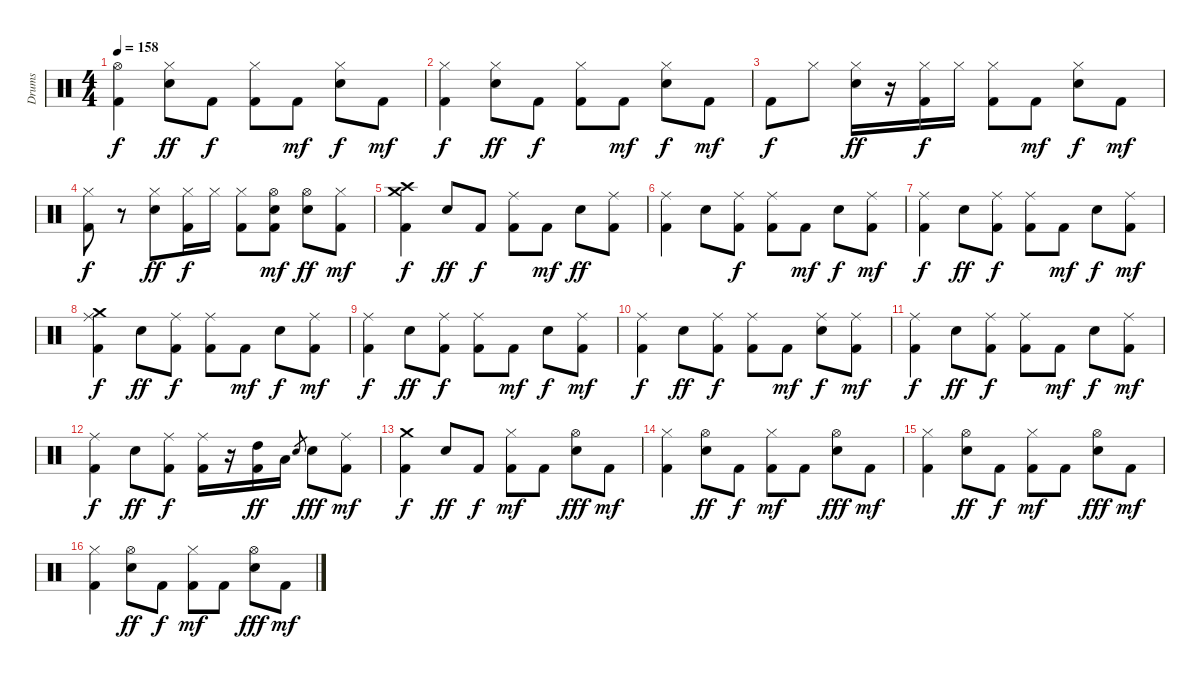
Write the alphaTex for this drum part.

\track ("Drums" "Drums") {instrument percussion}
\staff {score}
\articulation defaults
\ts (4 4)
\tempo 158
\clef neutral
\ks c
("Hi-Hat (open)" "Kick (hit) 2").4{dy f} ("Hi-Hat (closed)" "Snare (hit) 2").8{dy ff} "Kick (hit) 2".8{dy f} ("Hi-Hat (closed)" "Kick (hit) 2").8 "Kick (hit) 2".8{dy mf} ("Hi-Hat (closed)" "Snare (hit) 2").8{dy f} "Kick (hit) 2".8{dy mf} |
("Hi-Hat (closed)" "Kick (hit) 2").4{dy f} ("Hi-Hat (closed)" "Snare (hit) 2").8{dy ff} "Kick (hit) 2".8{dy f} ("Hi-Hat (closed)" "Kick (hit) 2").8 "Kick (hit) 2".8{dy mf} ("Hi-Hat (closed)" "Snare (hit) 2").8{dy f} "Kick (hit) 2".8{dy mf} |
"Kick (hit) 2".8{dy f} "Hi-Hat (closed)".8 ("Hi-Hat (closed)" "Snare (hit) 2").16{dy ff} r.16 ("Hi-Hat (closed)" "Kick (hit) 2").16{dy f} "Hi-Hat (closed)".16 ("Hi-Hat (closed)" "Kick (hit) 2").8 "Kick (hit) 2".8{dy mf} ("Hi-Hat (closed)" "Snare (hit) 2").8{dy f} "Kick (hit) 2".8{dy mf} |
("Hi-Hat (closed)" "Kick (hit) 2").8{dy f} r.8 ("Hi-Hat (closed)" "Snare (hit) 2").8{dy ff} ("Hi-Hat (closed)" "Kick (hit) 2").16{dy f} "Hi-Hat (closed)".16 ("Hi-Hat (closed)" "Kick (hit) 2").8 ("Hi-Hat (open)" "Snare (hit) 2" "Kick (hit) 2").8{dy mf} ("Hi-Hat (open)" "Snare (hit) 2").8{dy ff} ("Hi-Hat (closed)" "Kick (hit) 2").8{dy mf} |
("Crash high (hit)" "Crash medium (hit)" "Kick (hit) 2").4{dy f} "Snare (hit) 2".8{dy ff} "Kick (hit) 2".8{dy f} ("Ride (middle)" "Kick (hit) 2").8 "Kick (hit) 2".8{dy mf} "Snare (hit) 2".8{dy ff} ("Ride (middle)" "Kick (hit) 2").8 |
("Ride (middle)" "Kick (hit) 2").4 "Snare (hit) 2".8 ("Ride (middle)" "Kick (hit) 2").8{dy f} ("Ride (middle)" "Kick (hit) 2").8 "Kick (hit) 2".8{dy mf} "Snare (hit) 2".8{dy f} ("Ride (middle)" "Kick (hit) 2").8{dy mf} |
("Ride (middle)" "Kick (hit) 2").4{dy f} "Snare (hit) 2".8{dy ff} ("Ride (middle)" "Kick (hit) 2").8{dy f} ("Ride (middle)" "Kick (hit) 2").8 "Kick (hit) 2".8{dy mf} "Snare (hit) 2".8{dy f} ("Ride (middle)" "Kick (hit) 2").8{dy mf} |
("Ride (middle)" "Crash medium (hit)" "Kick (hit) 2").4{dy f} "Snare (hit) 2".8{dy ff} ("Ride (middle)" "Kick (hit) 2").8{dy f} ("Ride (middle)" "Kick (hit) 2").8 "Kick (hit) 2".8{dy mf} "Snare (hit) 2".8{dy f} ("Ride (middle)" "Kick (hit) 2").8{dy mf} |
("Ride (middle)" "Kick (hit) 2").4{dy f} "Snare (hit) 2".8{dy ff} ("Ride (middle)" "Kick (hit) 2").8{dy f} ("Ride (middle)" "Kick (hit) 2").8 "Kick (hit) 2".8{dy mf} "Snare (hit) 2".8{dy f} ("Ride (middle)" "Kick (hit) 2").8{dy mf} |
("Ride (middle)" "Kick (hit) 2").4{dy f} "Snare (hit) 2".8{dy ff} ("Ride (middle)" "Kick (hit) 2").8{dy f} ("Ride (middle)" "Kick (hit) 2").8 "Kick (hit) 2".8{dy mf} ("Ride (middle)" "Snare (hit) 2").8{dy f} ("Ride (middle)" "Kick (hit) 2").8{dy mf} |
("Ride (middle)" "Kick (hit) 2").4{dy f} "Snare (hit) 2".8{dy ff} ("Ride (middle)" "Kick (hit) 2").8{dy f} ("Ride (middle)" "Kick (hit) 2").8 "Kick (hit) 2".8{dy mf} "Snare (hit) 2".8{dy f} ("Ride (middle)" "Kick (hit) 2").8{dy mf} |
("Ride (middle)" "Kick (hit) 2").4{dy f} "Snare (hit) 2".8{dy ff} ("Ride (middle)" "Kick (hit) 2").8{dy f} ("Ride (middle)" "Kick (hit) 2").16 r.16 ("High Tom (hit)" "Kick (hit) 2").16{dy ff} "Low Tom (hit)".16 "Snare (hit) 2".8{gr} "Snare (hit) 2".8{dy fff} ("Ride (middle)" "Kick (hit) 2").8{dy mf} |
("Crash medium (hit)" "Kick (hit) 2").4{dy f} "Snare (hit) 2".8{dy ff} "Kick (hit) 2".8{dy f} ("Hi-Hat (closed)" "Kick (hit) 2").8{dy mf} "Kick (hit) 2".8 ("Hi-Hat (open)" "Snare (hit) 2").8{dy fff} "Kick (hit) 2".8{dy mf} |
("Hi-Hat (closed)" "Kick (hit) 2").4 ("Hi-Hat (open)" "Snare (hit) 2").8{dy ff} "Kick (hit) 2".8{dy f} ("Hi-Hat (closed)" "Kick (hit) 2").8{dy mf} "Kick (hit) 2".8 ("Hi-Hat (open)" "Snare (hit) 2").8{dy fff} "Kick (hit) 2".8{dy mf} |
("Hi-Hat (closed)" "Kick (hit) 2").4 ("Hi-Hat (open)" "Snare (hit) 2").8{dy ff} "Kick (hit) 2".8{dy f} ("Hi-Hat (closed)" "Kick (hit) 2").8{dy mf} "Kick (hit) 2".8 ("Hi-Hat (open)" "Snare (hit) 2").8{dy fff} "Kick (hit) 2".8{dy mf} |
("Hi-Hat (closed)" "Kick (hit) 2").4 ("Hi-Hat (open)" "Snare (hit) 2").8{dy ff} "Kick (hit) 2".8{dy f} ("Hi-Hat (closed)" "Kick (hit) 2").8{dy mf} "Kick (hit) 2".8 ("Hi-Hat (open)" "Snare (hit) 2").8{dy fff} "Kick (hit) 2".8{dy mf}
